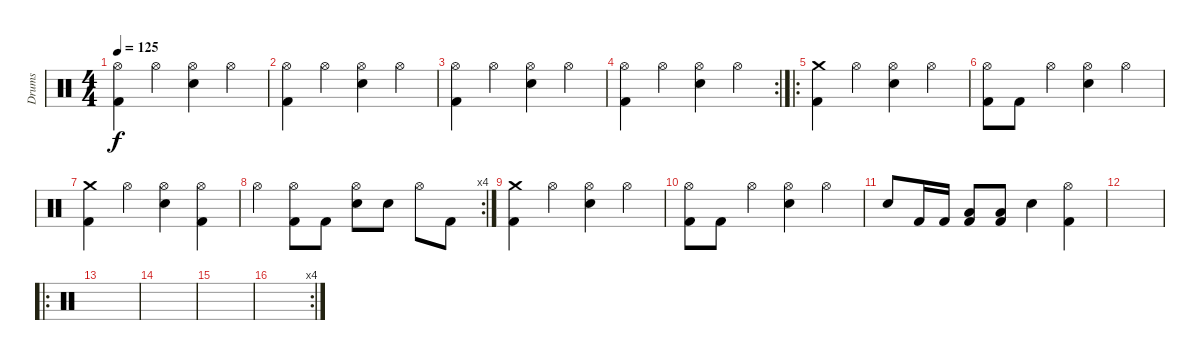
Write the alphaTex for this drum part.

\track ("Drums" "Drums") {instrument percussion}
\staff {score}
\articulation defaults
\ts (4 4)
\tempo 125
\clef neutral
\ks c
("Hi-Hat (open)" "Kick (hit) 2").4{dy f} "Hi-Hat (open)".4 ("Hi-Hat (open)" "Electric Snare (hit)").4 "Hi-Hat (open)".4 |
("Hi-Hat (open)" "Kick (hit) 2").4 "Hi-Hat (open)".4 ("Hi-Hat (open)" "Electric Snare (hit)").4 "Hi-Hat (open)".4 |
("Hi-Hat (open)" "Kick (hit) 2").4 "Hi-Hat (open)".4 ("Hi-Hat (open)" "Electric Snare (hit)").4 "Hi-Hat (open)".4 |
\rc 2
("Hi-Hat (open)" "Kick (hit) 2").4 "Hi-Hat (open)".4 ("Hi-Hat (open)" "Electric Snare (hit)").4 "Hi-Hat (open)".4 |
\ro
("Crash medium (hit)" "Kick (hit) 2").4 "Hi-Hat (open)".4 ("Hi-Hat (open)" "Electric Snare (hit)").4 "Hi-Hat (open)".4 |
("Hi-Hat (open)" "Kick (hit) 2").8 "Kick (hit) 2".8 "Hi-Hat (open)".4 ("Hi-Hat (open)" "Electric Snare (hit)").4 "Hi-Hat (open)".4 |
("Crash medium (hit)" "Kick (hit) 2").4 "Hi-Hat (open)".4 ("Hi-Hat (open)" "Electric Snare (hit)").4 ("Hi-Hat (open)" "Kick (hit) 2").4 |
\rc 4 "Hi-Hat (open)".4
("Hi-Hat (open)" "Kick (hit) 2").8 "Kick (hit) 2".8 ("Hi-Hat (open)" "Electric Snare (hit)").8 "Electric Snare (hit)".8 "Hi-Hat (open)".8 "Kick (hit) 2".8 |
("Crash medium (hit)" "Kick (hit) 2").4 "Hi-Hat (open)".4 ("Hi-Hat (open)" "Electric Snare (hit)").4 "Hi-Hat (open)".4 |
("Hi-Hat (open)" "Kick (hit) 2").8 "Kick (hit) 2".8 "Hi-Hat (open)".4 ("Hi-Hat (open)" "Electric Snare (hit)").4 "Hi-Hat (open)".4 |
"Electric Snare (hit)".8 "Kick (hit) 2".16 "Kick (hit) 2".16 ("Low Floor Tom (hit)" "Kick (hit) 2").8 ("Low Floor Tom (hit)" "Kick (hit) 2").8 "Electric Snare (hit)".4 ("Hi-Hat (open)" "Kick (hit) 2").4 |
|
\ro
|
|
|
\rc 4
